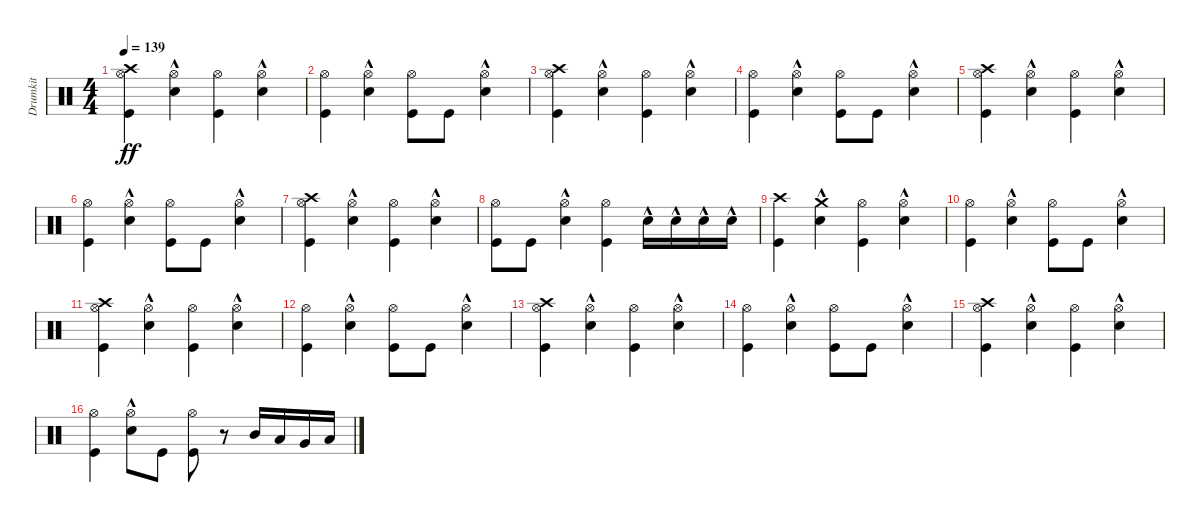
\track ("Drumkit" "Drumkit") {instrument percussion}
\staff {score}
\articulation defaults
\ts (4 4)
\tempo 139
\clef neutral
\ks c
("Kick (hit)" "Hi-Hat (open)" "Crash high (hit)").4{dy ff} ("Hi-Hat (open)" "Snare (hit) 2"{hac}).4 ("Hi-Hat (open)" "Kick (hit)").4 ("Hi-Hat (open)" "Snare (hit) 2"{hac}).4 |
("Hi-Hat (open)" "Kick (hit)").4 ("Snare (hit) 2"{hac} "Hi-Hat (open)").4 ("Hi-Hat (open)" "Kick (hit)").8 "Kick (hit)".8 ("Snare (hit) 2"{hac} "Hi-Hat (open)").4 |
("Kick (hit)" "Crash high (hit)" "Hi-Hat (open)").4 ("Snare (hit) 2"{hac} "Hi-Hat (open)").4 ("Kick (hit)" "Hi-Hat (open)").4 ("Snare (hit) 2"{hac} "Hi-Hat (open)").4 |
("Hi-Hat (open)" "Kick (hit)").4 ("Hi-Hat (open)" "Snare (hit) 2"{hac}).4 ("Hi-Hat (open)" "Kick (hit)").8 "Kick (hit)".8 ("Hi-Hat (open)" "Snare (hit) 2"{hac}).4 |
("Hi-Hat (open)" "Kick (hit)" "Crash high (hit)").4 ("Hi-Hat (open)" "Snare (hit) 2"{hac}).4 ("Hi-Hat (open)" "Kick (hit)").4 ("Hi-Hat (open)" "Snare (hit) 2"{hac}).4 |
("Hi-Hat (open)" "Kick (hit)").4 ("Snare (hit) 2"{hac} "Hi-Hat (open)").4 ("Hi-Hat (open)" "Kick (hit)").8 "Kick (hit)".8 ("Snare (hit) 2"{hac} "Hi-Hat (open)").4 |
("Kick (hit)" "Crash high (hit)" "Hi-Hat (open)").4 ("Snare (hit) 2"{hac} "Hi-Hat (open)").4 ("Kick (hit)" "Hi-Hat (open)").4 ("Snare (hit) 2"{hac} "Hi-Hat (open)").4 |
("Kick (hit)" "Hi-Hat (open)").8 "Kick (hit)".8 ("Snare (hit) 2"{hac} "Hi-Hat (open)").4 ("Kick (hit)" "Hi-Hat (open)").4 "Snare (hit) 2"{hac}.16 "Snare (hit) 2"{hac}.16 "Snare (hit) 2"{hac}.16 "Snare (hit) 2"{hac}.16 |
("Kick (hit)" "Crash high (hit)").4 ("Snare (hit) 2"{hac} "Crash medium (hit)").4 ("Hi-Hat (open)" "Kick (hit)").4 ("Hi-Hat (open)" "Snare (hit) 2"{hac}).4 |
("Hi-Hat (open)" "Kick (hit)").4 ("Snare (hit) 2"{hac} "Hi-Hat (open)").4 ("Hi-Hat (open)" "Kick (hit)").8 "Kick (hit)".8 ("Snare (hit) 2"{hac} "Hi-Hat (open)").4 |
("Kick (hit)" "Hi-Hat (open)" "Crash high (hit)").4 ("Snare (hit) 2"{hac} "Hi-Hat (open)").4 ("Kick (hit)" "Hi-Hat (open)").4 ("Snare (hit) 2"{hac} "Hi-Hat (open)").4 |
("Hi-Hat (open)" "Kick (hit)").4 ("Hi-Hat (open)" "Snare (hit) 2"{hac}).4 ("Hi-Hat (open)" "Kick (hit)").8 "Kick (hit)".8 ("Snare (hit) 2"{hac} "Hi-Hat (open)").4 |
("Hi-Hat (open)" "Kick (hit)" "Crash high (hit)").4 ("Hi-Hat (open)" "Snare (hit) 2"{hac}).4 ("Hi-Hat (open)" "Kick (hit)").4 ("Hi-Hat (open)" "Snare (hit) 2"{hac}).4 |
("Hi-Hat (open)" "Kick (hit)").4 ("Snare (hit) 2"{hac} "Hi-Hat (open)").4 ("Hi-Hat (open)" "Kick (hit)").8 "Kick (hit)".8 ("Snare (hit) 2"{hac} "Hi-Hat (open)").4 |
("Kick (hit)" "Hi-Hat (open)" "Crash high (hit)").4 ("Snare (hit) 2"{hac} "Hi-Hat (open)").4 ("Kick (hit)" "Hi-Hat (open)").4 ("Snare (hit) 2"{hac} "Hi-Hat (open)").4 |
("Hi-Hat (open)" "Kick (hit)").4 ("Hi-Hat (open)" "Snare (hit) 2"{hac}).8 "Kick (hit)".8 ("Kick (hit)" "Hi-Hat (open)").8 r.8 "Mid Tom (hit)".16 "Low Tom (hit)".16 "Very Low Tom (hit)".16 "Low Floor Tom (hit)".16
